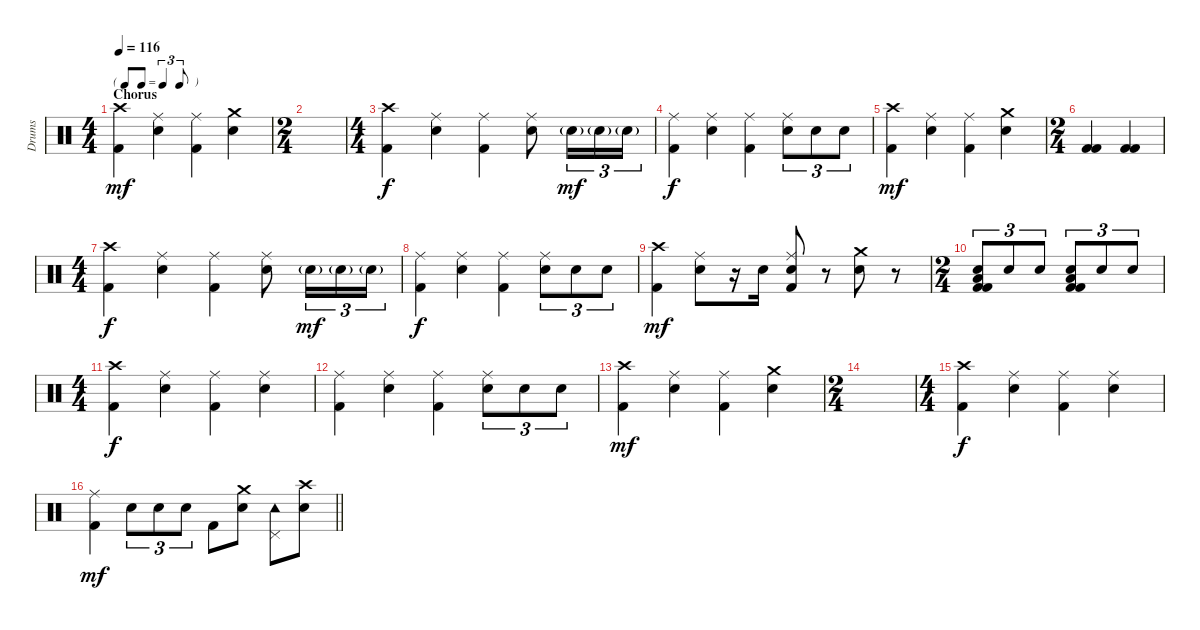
\track ("Drums" "Drums") {instrument percussion}
\staff {score}
\articulation defaults
\ts (4 4)
\tf triplet8th
\section ("" "Chorus")
\tempo 116
\clef neutral
\ks c
("Crash high (hit)" "Kick (hit) 2").4{dy mf} ("Ride (middle)" "Snare (hit) 2").4 ("Ride (middle)" "Kick (hit) 2").4 ("Crash medium (hit)" "Snare (hit) 2").4 |
\ts (2 4)
|
\ts (4 4)
("Crash high (hit)" "Kick (hit) 2").4{dy f} ("Ride (middle)" "Snare (hit) 2").4 ("Ride (middle)" "Kick (hit) 2").4 ("Ride (middle)" "Snare (hit) 2").8 "Snare (hit) 2"{g}.16{tu (3 2) dy mf} "Snare (hit) 2"{g}.16{tu (3 2)} "Snare (hit) 2"{g}.16{tu (3 2)} |
("Ride (middle)" "Kick (hit) 2").4{dy f} ("Ride (middle)" "Snare (hit) 2").4 ("Ride (middle)" "Kick (hit) 2").4 ("Ride (middle)" "Snare (hit) 2").8{tu (3 2)} "Snare (hit) 2".8{tu (3 2)} "Snare (hit) 2".8{tu (3 2)} |
("Crash high (hit)" "Kick (hit) 2").4{dy mf} ("Ride (middle)" "Snare (hit) 2").4 ("Ride (middle)" "Kick (hit) 2").4 ("Crash medium (hit)" "Snare (hit) 2").4 |
\ts (2 4)
("Kick (hit) 2" "Kick (hit) 2").4 ("Kick (hit) 2" "Kick (hit) 2").4 |
\ts (4 4)
("Crash high (hit)" "Kick (hit) 2").4{dy f} ("Ride (middle)" "Snare (hit) 2").4 ("Ride (middle)" "Kick (hit) 2").4 ("Ride (middle)" "Snare (hit) 2").8 "Snare (hit) 2"{g}.16{tu (3 2) dy mf} "Snare (hit) 2"{g}.16{tu (3 2)} "Snare (hit) 2"{g}.16{tu (3 2)} |
("Ride (middle)" "Kick (hit) 2").4{dy f} ("Ride (middle)" "Snare (hit) 2").4 ("Ride (middle)" "Kick (hit) 2").4 ("Ride (middle)" "Snare (hit) 2").8{tu (3 2)} "Snare (hit) 2".8{tu (3 2)} "Snare (hit) 2".8{tu (3 2)} |
("Crash high (hit)" "Kick (hit) 2").4{dy mf} ("Ride (middle)" "Snare (hit) 2").8 r.16 "Snare (hit) 2".16 ("Ride (middle)" "Snare (hit) 2" "Kick (hit) 2").8 r.8 ("Crash medium (hit)" "Snare (hit) 2").8 r.8 |
\ts (2 4)
("Snare (hit) 2" "Low Floor Tom (hit)" "Kick (hit) 2" "Kick (hit) 2").8{tu (3 2)} "Snare (hit) 2".8{tu (3 2)} "Snare (hit) 2".8{tu (3 2)} ("Snare (hit) 2" "Low Floor Tom (hit)" "Kick (hit) 2" "Kick (hit) 2").8{tu (3 2)} "Snare (hit) 2".8{tu (3 2)} "Snare (hit) 2".8{tu (3 2)} |
\ts (4 4)
("Crash high (hit)" "Kick (hit) 2").4{dy f} ("Ride (middle)" "Snare (hit) 2").4 ("Ride (middle)" "Kick (hit) 2").4 ("Ride (middle)" "Snare (hit) 2").4 |
("Ride (middle)" "Kick (hit) 2").4 ("Ride (middle)" "Snare (hit) 2").4 ("Ride (middle)" "Kick (hit) 2").4 ("Ride (middle)" "Snare (hit) 2").8{tu (3 2)} "Snare (hit) 2".8{tu (3 2)} "Snare (hit) 2".8{tu (3 2)} |
("Crash high (hit)" "Kick (hit) 2").4{dy mf} ("Ride (middle)" "Snare (hit) 2").4 ("Ride (middle)" "Kick (hit) 2").4 ("Crash medium (hit)" "Snare (hit) 2").4 |
\ts (2 4)
|
\ts (4 4)
("Crash high (hit)" "Kick (hit) 2").4{dy f} ("Ride (middle)" "Snare (hit) 2").4 ("Ride (middle)" "Kick (hit) 2").4 ("Ride (middle)" "Snare (hit) 2").4 |
\barLineRight lightlight
("Ride (middle)" "Kick (hit) 2").4{dy mf} "Snare (hit) 2".8{tu (3 2)} "Snare (hit) 2".8{tu (3 2)} "Snare (hit) 2".8{tu (3 2)} "Kick (hit) 2".8 ("Crash medium (hit)" "Snare (hit) 2").8 ("Tambourine (hit)" "Pedal Hi-Hat (hit)").8 ("Crash high (hit)" "Snare (hit) 2").8
